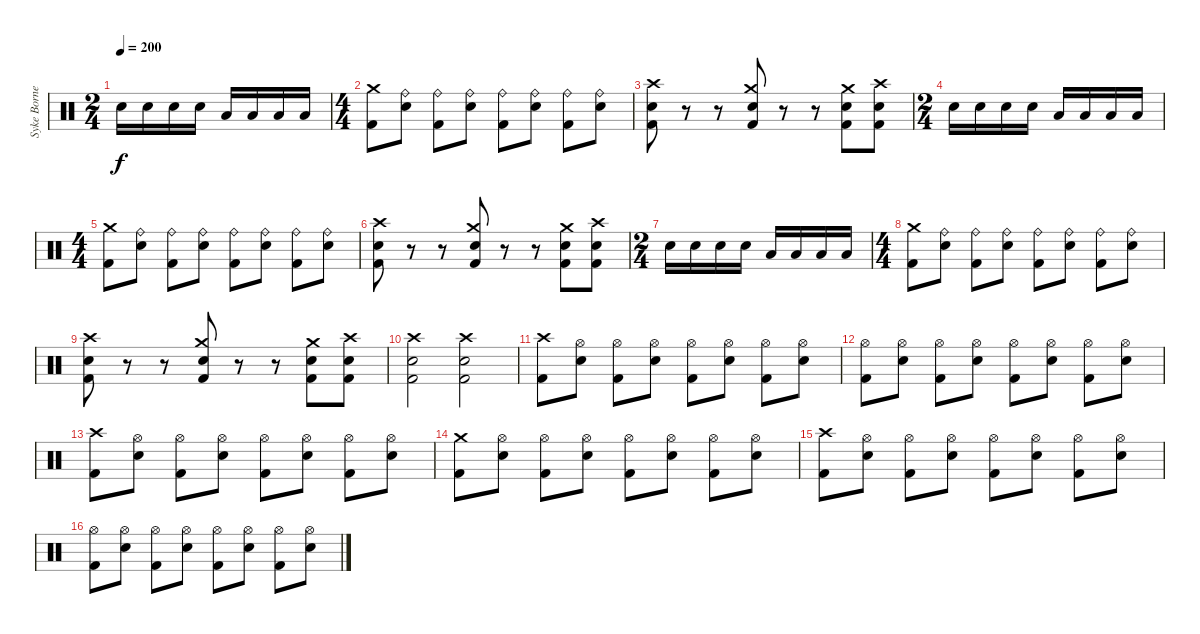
\track ("Syke Bornetto (Drums)" "Syke Borne") {instrument percussion}
\staff {score}
\articulation defaults
\ts (2 4)
\tempo 200
\clef neutral
\ks c "Electric Snare (hit)".16{dy f} "Electric Snare (hit)".16 "Electric Snare (hit)".16 "Electric Snare (hit)".16 "Low Floor Tom (hit)".16 "Low Floor Tom (hit)".16 "Low Floor Tom (hit)".16 "Low Floor Tom (hit)".16
|
\ts (4 4)
("Crash medium (hit)" "Kick (hit) 2").8 ("Ride (bell)" "Electric Snare (hit)").8 ("Ride (bell)" "Kick (hit) 2").8 ("Ride (bell)" "Electric Snare (hit)").8 ("Ride (bell)" "Kick (hit) 2").8 ("Ride (bell)" "Electric Snare (hit)").8 ("Ride (bell)" "Kick (hit) 2").8 ("Ride (bell)" "Electric Snare (hit)").8 |
("Crash high (hit)" "Kick (hit) 2" "Electric Snare (hit)").8 r.8 r.8 ("Crash medium (hit)" "Kick (hit) 2" "Electric Snare (hit)").8 r.8 r.8 ("Crash medium (hit)" "Kick (hit) 2" "Electric Snare (hit)").8 ("Crash high (hit)" "Kick (hit) 2" "Electric Snare (hit)").8 |
\ts (2 4)
"Electric Snare (hit)".16 "Electric Snare (hit)".16 "Electric Snare (hit)".16 "Electric Snare (hit)".16 "Low Floor Tom (hit)".16 "Low Floor Tom (hit)".16 "Low Floor Tom (hit)".16 "Low Floor Tom (hit)".16 |
\ts (4 4)
("Crash medium (hit)" "Kick (hit) 2").8 ("Ride (bell)" "Electric Snare (hit)").8 ("Ride (bell)" "Kick (hit) 2").8 ("Ride (bell)" "Electric Snare (hit)").8 ("Ride (bell)" "Kick (hit) 2").8 ("Ride (bell)" "Electric Snare (hit)").8 ("Ride (bell)" "Kick (hit) 2").8 ("Ride (bell)" "Electric Snare (hit)").8 |
("Crash high (hit)" "Kick (hit) 2" "Electric Snare (hit)").8 r.8 r.8 ("Crash medium (hit)" "Kick (hit) 2" "Electric Snare (hit)").8 r.8 r.8 ("Crash medium (hit)" "Kick (hit) 2" "Electric Snare (hit)").8 ("Crash high (hit)" "Kick (hit) 2" "Electric Snare (hit)").8 |
\ts (2 4)
"Electric Snare (hit)".16 "Electric Snare (hit)".16 "Electric Snare (hit)".16 "Electric Snare (hit)".16 "Low Floor Tom (hit)".16 "Low Floor Tom (hit)".16 "Low Floor Tom (hit)".16 "Low Floor Tom (hit)".16 |
\ts (4 4)
("Crash medium (hit)" "Kick (hit) 2").8 ("Ride (bell)" "Electric Snare (hit)").8 ("Ride (bell)" "Kick (hit) 2").8 ("Ride (bell)" "Electric Snare (hit)").8 ("Ride (bell)" "Kick (hit) 2").8 ("Ride (bell)" "Electric Snare (hit)").8 ("Ride (bell)" "Kick (hit) 2").8 ("Ride (bell)" "Electric Snare (hit)").8 |
("Crash high (hit)" "Kick (hit) 2" "Electric Snare (hit)").8 r.8 r.8 ("Crash medium (hit)" "Kick (hit) 2" "Electric Snare (hit)").8 r.8 r.8 ("Crash medium (hit)" "Kick (hit) 2" "Electric Snare (hit)").8 ("Crash high (hit)" "Kick (hit) 2" "Electric Snare (hit)").8 |
("Kick (hit) 2" "Crash high (hit)" "Electric Snare (hit)").2 ("Kick (hit) 2" "Crash high (hit)" "Electric Snare (hit)").2 |
("Crash high (hit)" "Kick (hit) 2").8 ("Hi-Hat (open)" "Electric Snare (hit)").8 ("Hi-Hat (open)" "Kick (hit) 2").8 ("Hi-Hat (open)" "Electric Snare (hit)").8 ("Hi-Hat (open)" "Kick (hit) 2").8 ("Hi-Hat (open)" "Electric Snare (hit)").8 ("Hi-Hat (open)" "Kick (hit) 2").8 ("Hi-Hat (open)" "Electric Snare (hit)").8 |
("Hi-Hat (open)" "Kick (hit) 2").8 ("Hi-Hat (open)" "Electric Snare (hit)").8 ("Hi-Hat (open)" "Kick (hit) 2").8 ("Hi-Hat (open)" "Electric Snare (hit)").8 ("Hi-Hat (open)" "Kick (hit) 2").8 ("Hi-Hat (open)" "Electric Snare (hit)").8 ("Hi-Hat (open)" "Kick (hit) 2").8 ("Hi-Hat (open)" "Electric Snare (hit)").8 |
("Crash high (hit)" "Kick (hit) 2").8 ("Hi-Hat (open)" "Electric Snare (hit)").8 ("Hi-Hat (open)" "Kick (hit) 2").8 ("Hi-Hat (open)" "Electric Snare (hit)").8 ("Hi-Hat (open)" "Kick (hit) 2").8 ("Hi-Hat (open)" "Electric Snare (hit)").8 ("Hi-Hat (open)" "Kick (hit) 2").8 ("Hi-Hat (open)" "Electric Snare (hit)").8 |
("Crash medium (hit)" "Kick (hit) 2").8 ("Hi-Hat (open)" "Electric Snare (hit)").8 ("Hi-Hat (open)" "Kick (hit) 2").8 ("Hi-Hat (open)" "Electric Snare (hit)").8 ("Hi-Hat (open)" "Kick (hit) 2").8 ("Hi-Hat (open)" "Electric Snare (hit)").8 ("Hi-Hat (open)" "Kick (hit) 2").8 ("Hi-Hat (open)" "Electric Snare (hit)").8 |
("Crash high (hit)" "Kick (hit) 2").8 ("Hi-Hat (open)" "Electric Snare (hit)").8 ("Hi-Hat (open)" "Kick (hit) 2").8 ("Hi-Hat (open)" "Electric Snare (hit)").8 ("Hi-Hat (open)" "Kick (hit) 2").8 ("Hi-Hat (open)" "Electric Snare (hit)").8 ("Hi-Hat (open)" "Kick (hit) 2").8 ("Hi-Hat (open)" "Electric Snare (hit)").8 |
("Hi-Hat (open)" "Kick (hit) 2").8 ("Hi-Hat (open)" "Electric Snare (hit)").8 ("Hi-Hat (open)" "Kick (hit) 2").8 ("Hi-Hat (open)" "Electric Snare (hit)").8 ("Hi-Hat (open)" "Kick (hit) 2").8 ("Hi-Hat (open)" "Electric Snare (hit)").8 ("Hi-Hat (open)" "Kick (hit) 2").8 ("Hi-Hat (open)" "Electric Snare (hit)").8
